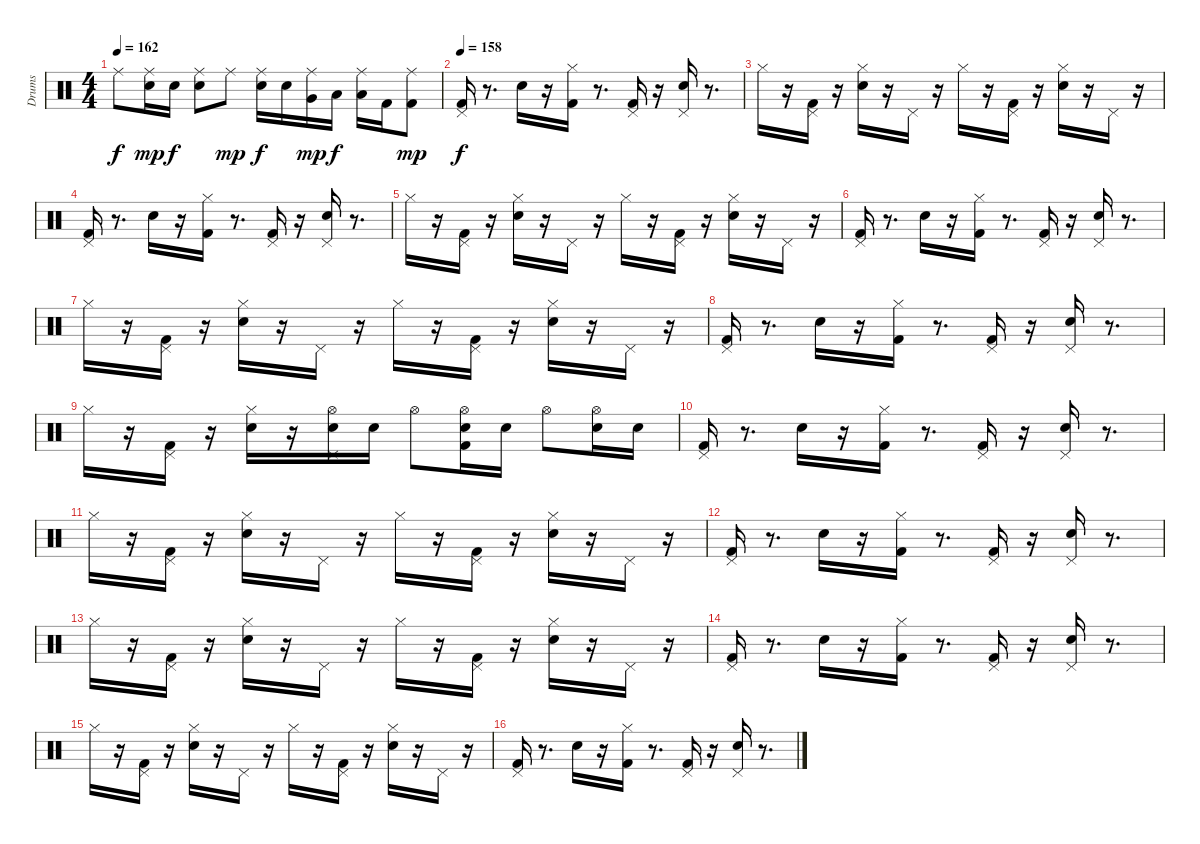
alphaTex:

\track ("Drums" "Drums") {instrument percussion}
\staff {score}
\articulation defaults
\ts (4 4)
\tempo 162
\clef neutral
\ks c "Ride (middle)".8{dy f}
("Electric Snare (hit)" "Ride (middle)").16{dy mp} "Electric Snare (hit)".16{dy f} ("Electric Snare (hit)" "Ride (middle)").8 "Ride (middle)".8{dy mp} ("Electric Snare (hit)" "Ride (middle)").16{dy f} "Electric Snare (hit)".16 ("Very Low Tom (hit)" "Ride (middle)").16{dy mp} "Low Floor Tom (hit)".16{dy f} ("Low Floor Tom (hit)" "Ride (middle)").16 "Kick (hit) 2".16 ("Kick (hit) 2" "Ride (middle)").8{dy mp} |
\tempo 158
("Kick (hit) 2" "Pedal Hi-Hat (hit)").16{dy f} r.8{d} "Electric Snare (hit)".16 r.16 ("Kick (hit) 2" "Hi-Hat (closed)").16 r.8{d} ("Kick (hit) 2" "Pedal Hi-Hat (hit)").16 r.16 ("Pedal Hi-Hat (hit)" "Electric Snare (hit)").16 r.8{d} |
"Hi-Hat (closed)".16 r.16 ("Kick (hit) 2" "Pedal Hi-Hat (hit)").16 r.16 ("Electric Snare (hit)" "Hi-Hat (closed)").16 r.16 "Pedal Hi-Hat (hit)".16 r.16 "Hi-Hat (closed)".16 r.16 ("Kick (hit) 2" "Pedal Hi-Hat (hit)").16 r.16 ("Electric Snare (hit)" "Hi-Hat (closed)").16 r.16 "Pedal Hi-Hat (hit)".16 r.16 |
("Kick (hit) 2" "Pedal Hi-Hat (hit)").16 r.8{d} "Electric Snare (hit)".16 r.16 ("Kick (hit) 2" "Hi-Hat (closed)").16 r.8{d} ("Kick (hit) 2" "Pedal Hi-Hat (hit)").16 r.16 ("Pedal Hi-Hat (hit)" "Electric Snare (hit)").16 r.8{d} |
"Hi-Hat (closed)".16 r.16 ("Kick (hit) 2" "Pedal Hi-Hat (hit)").16 r.16 ("Electric Snare (hit)" "Hi-Hat (closed)").16 r.16 "Pedal Hi-Hat (hit)".16 r.16 "Hi-Hat (closed)".16 r.16 ("Kick (hit) 2" "Pedal Hi-Hat (hit)").16 r.16 ("Electric Snare (hit)" "Hi-Hat (closed)").16 r.16 "Pedal Hi-Hat (hit)".16 r.16 |
("Kick (hit) 2" "Pedal Hi-Hat (hit)").16 r.8{d} "Electric Snare (hit)".16 r.16 ("Kick (hit) 2" "Hi-Hat (closed)").16 r.8{d} ("Kick (hit) 2" "Pedal Hi-Hat (hit)").16 r.16 ("Pedal Hi-Hat (hit)" "Electric Snare (hit)").16 r.8{d} |
"Hi-Hat (closed)".16 r.16 ("Kick (hit) 2" "Pedal Hi-Hat (hit)").16 r.16 ("Electric Snare (hit)" "Hi-Hat (closed)").16 r.16 "Pedal Hi-Hat (hit)".16 r.16 "Hi-Hat (closed)".16 r.16 ("Kick (hit) 2" "Pedal Hi-Hat (hit)").16 r.16 ("Electric Snare (hit)" "Hi-Hat (closed)").16 r.16 "Pedal Hi-Hat (hit)".16 r.16 |
("Kick (hit) 2" "Pedal Hi-Hat (hit)").16 r.8{d} "Electric Snare (hit)".16 r.16 ("Kick (hit) 2" "Hi-Hat (closed)").16 r.8{d} ("Kick (hit) 2" "Pedal Hi-Hat (hit)").16 r.16 ("Pedal Hi-Hat (hit)" "Electric Snare (hit)").16 r.8{d} |
"Hi-Hat (closed)".16 r.16 ("Kick (hit) 2" "Pedal Hi-Hat (hit)").16 r.16 ("Electric Snare (hit)" "Hi-Hat (closed)").16 r.16 ("Hi-Hat (open)" "Electric Snare (hit)" "Pedal Hi-Hat (hit)").16 "Electric Snare (hit)".16 "Hi-Hat (open)".8 ("Hi-Hat (open)" "Electric Snare (hit)" "Kick (hit) 2").16 "Electric Snare (hit)".16 "Hi-Hat (open)".8 ("Hi-Hat (open)" "Electric Snare (hit)").16 "Electric Snare (hit)".16 |
("Kick (hit) 2" "Pedal Hi-Hat (hit)").16 r.8{d} "Electric Snare (hit)".16 r.16 ("Kick (hit) 2" "Hi-Hat (closed)").16 r.8{d} ("Kick (hit) 2" "Pedal Hi-Hat (hit)").16 r.16 ("Pedal Hi-Hat (hit)" "Electric Snare (hit)").16 r.8{d} |
"Hi-Hat (closed)".16 r.16 ("Kick (hit) 2" "Pedal Hi-Hat (hit)").16 r.16 ("Electric Snare (hit)" "Hi-Hat (closed)").16 r.16 "Pedal Hi-Hat (hit)".16 r.16 "Hi-Hat (closed)".16 r.16 ("Kick (hit) 2" "Pedal Hi-Hat (hit)").16 r.16 ("Electric Snare (hit)" "Hi-Hat (closed)").16 r.16 "Pedal Hi-Hat (hit)".16 r.16 |
("Kick (hit) 2" "Pedal Hi-Hat (hit)").16 r.8{d} "Electric Snare (hit)".16 r.16 ("Kick (hit) 2" "Hi-Hat (closed)").16 r.8{d} ("Kick (hit) 2" "Pedal Hi-Hat (hit)").16 r.16 ("Pedal Hi-Hat (hit)" "Electric Snare (hit)").16 r.8{d} |
"Hi-Hat (closed)".16 r.16 ("Kick (hit) 2" "Pedal Hi-Hat (hit)").16 r.16 ("Electric Snare (hit)" "Hi-Hat (closed)").16 r.16 "Pedal Hi-Hat (hit)".16 r.16 "Hi-Hat (closed)".16 r.16 ("Kick (hit) 2" "Pedal Hi-Hat (hit)").16 r.16 ("Electric Snare (hit)" "Hi-Hat (closed)").16 r.16 "Pedal Hi-Hat (hit)".16 r.16 |
("Kick (hit) 2" "Pedal Hi-Hat (hit)").16 r.8{d} "Electric Snare (hit)".16 r.16 ("Kick (hit) 2" "Hi-Hat (closed)").16 r.8{d} ("Kick (hit) 2" "Pedal Hi-Hat (hit)").16 r.16 ("Pedal Hi-Hat (hit)" "Electric Snare (hit)").16 r.8{d} |
"Hi-Hat (closed)".16 r.16 ("Kick (hit) 2" "Pedal Hi-Hat (hit)").16 r.16 ("Electric Snare (hit)" "Hi-Hat (closed)").16 r.16 "Pedal Hi-Hat (hit)".16 r.16 "Hi-Hat (closed)".16 r.16 ("Kick (hit) 2" "Pedal Hi-Hat (hit)").16 r.16 ("Electric Snare (hit)" "Hi-Hat (closed)").16 r.16 "Pedal Hi-Hat (hit)".16 r.16 |
("Kick (hit) 2" "Pedal Hi-Hat (hit)").16 r.8{d} "Electric Snare (hit)".16 r.16 ("Kick (hit) 2" "Hi-Hat (closed)").16 r.8{d} ("Kick (hit) 2" "Pedal Hi-Hat (hit)").16 r.16 ("Pedal Hi-Hat (hit)" "Electric Snare (hit)").16 r.8{d}
